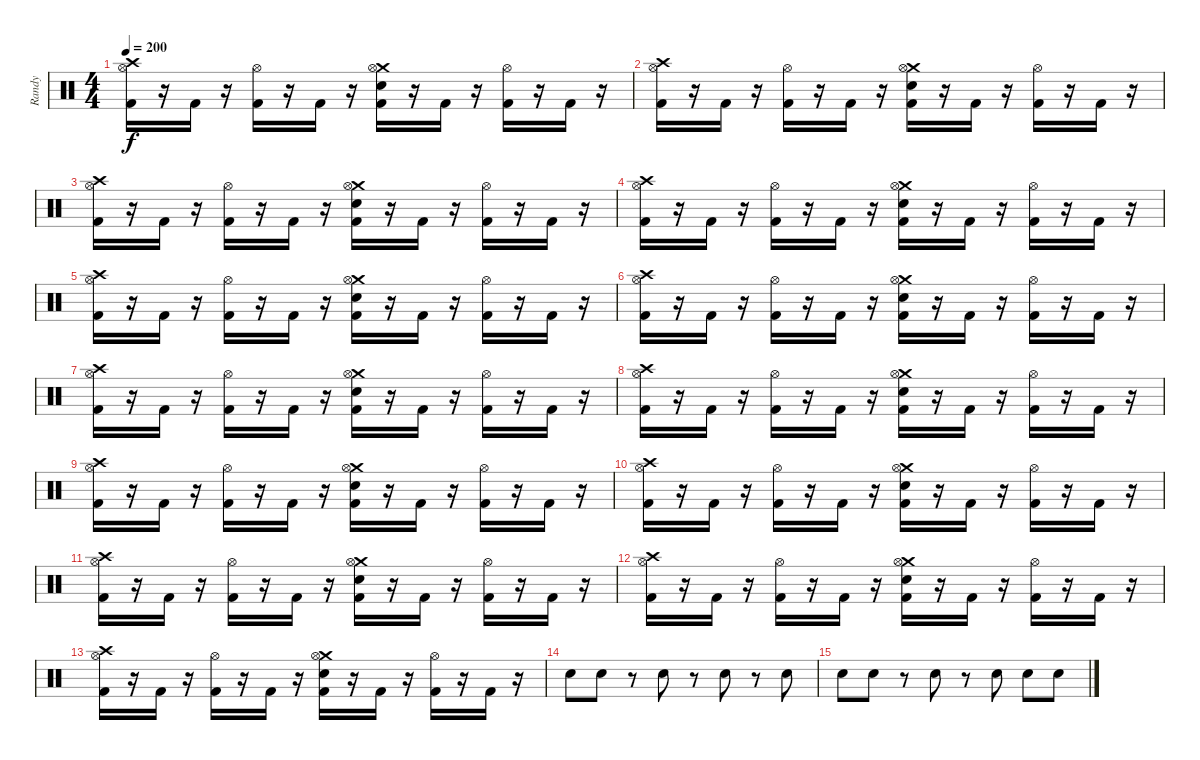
\track ("Randy" "Randy") {instrument percussion}
\staff {score}
\articulation defaults
\ts (4 4)
\tempo 200
\clef neutral
\ks c
("Kick (hit) 2" "Crash high (hit)" "Hi-Hat (open)").16{dy f} r.16 "Kick (hit) 2".16 r.16 ("Kick (hit) 2" "Hi-Hat (open)").16 r.16 "Kick (hit) 2".16 r.16 ("Kick (hit) 2" "Electric Snare (hit)" "Crash medium (hit)" "Hi-Hat (open)").16 r.16 "Kick (hit) 2".16 r.16 ("Kick (hit) 2" "Hi-Hat (open)").16 r.16 "Kick (hit) 2".16 r.16 |
("Kick (hit) 2" "Crash high (hit)" "Hi-Hat (open)").16 r.16 "Kick (hit) 2".16 r.16 ("Kick (hit) 2" "Hi-Hat (open)").16 r.16 "Kick (hit) 2".16 r.16 ("Kick (hit) 2" "Electric Snare (hit)" "Crash medium (hit)" "Hi-Hat (open)").16 r.16 "Kick (hit) 2".16 r.16 ("Kick (hit) 2" "Hi-Hat (open)").16 r.16 "Kick (hit) 2".16 r.16 |
("Kick (hit) 2" "Crash high (hit)" "Hi-Hat (open)").16 r.16 "Kick (hit) 2".16 r.16 ("Kick (hit) 2" "Hi-Hat (open)").16 r.16 "Kick (hit) 2".16 r.16 ("Kick (hit) 2" "Electric Snare (hit)" "Crash medium (hit)" "Hi-Hat (open)").16 r.16 "Kick (hit) 2".16 r.16 ("Kick (hit) 2" "Hi-Hat (open)").16 r.16 "Kick (hit) 2".16 r.16 |
("Kick (hit) 2" "Crash high (hit)" "Hi-Hat (open)").16 r.16 "Kick (hit) 2".16 r.16 ("Kick (hit) 2" "Hi-Hat (open)").16 r.16 "Kick (hit) 2".16 r.16 ("Kick (hit) 2" "Electric Snare (hit)" "Crash medium (hit)" "Hi-Hat (open)").16 r.16 "Kick (hit) 2".16 r.16 ("Kick (hit) 2" "Hi-Hat (open)").16 r.16 "Kick (hit) 2".16 r.16 |
("Kick (hit) 2" "Crash high (hit)" "Hi-Hat (open)").16 r.16 "Kick (hit) 2".16 r.16 ("Kick (hit) 2" "Hi-Hat (open)").16 r.16 "Kick (hit) 2".16 r.16 ("Kick (hit) 2" "Electric Snare (hit)" "Crash medium (hit)" "Hi-Hat (open)").16 r.16 "Kick (hit) 2".16 r.16 ("Kick (hit) 2" "Hi-Hat (open)").16 r.16 "Kick (hit) 2".16 r.16 |
("Kick (hit) 2" "Crash high (hit)" "Hi-Hat (open)").16 r.16 "Kick (hit) 2".16 r.16 ("Kick (hit) 2" "Hi-Hat (open)").16 r.16 "Kick (hit) 2".16 r.16 ("Kick (hit) 2" "Electric Snare (hit)" "Crash medium (hit)" "Hi-Hat (open)").16 r.16 "Kick (hit) 2".16 r.16 ("Kick (hit) 2" "Hi-Hat (open)").16 r.16 "Kick (hit) 2".16 r.16 |
("Kick (hit) 2" "Crash high (hit)" "Hi-Hat (open)").16 r.16 "Kick (hit) 2".16 r.16 ("Kick (hit) 2" "Hi-Hat (open)").16 r.16 "Kick (hit) 2".16 r.16 ("Kick (hit) 2" "Electric Snare (hit)" "Crash medium (hit)" "Hi-Hat (open)").16 r.16 "Kick (hit) 2".16 r.16 ("Kick (hit) 2" "Hi-Hat (open)").16 r.16 "Kick (hit) 2".16 r.16 |
("Kick (hit) 2" "Crash high (hit)" "Hi-Hat (open)").16 r.16 "Kick (hit) 2".16 r.16 ("Kick (hit) 2" "Hi-Hat (open)").16 r.16 "Kick (hit) 2".16 r.16 ("Kick (hit) 2" "Electric Snare (hit)" "Crash medium (hit)" "Hi-Hat (open)").16 r.16 "Kick (hit) 2".16 r.16 ("Kick (hit) 2" "Hi-Hat (open)").16 r.16 "Kick (hit) 2".16 r.16 |
("Kick (hit) 2" "Crash high (hit)" "Hi-Hat (open)").16 r.16 "Kick (hit) 2".16 r.16 ("Kick (hit) 2" "Hi-Hat (open)").16 r.16 "Kick (hit) 2".16 r.16 ("Kick (hit) 2" "Electric Snare (hit)" "Crash medium (hit)" "Hi-Hat (open)").16 r.16 "Kick (hit) 2".16 r.16 ("Kick (hit) 2" "Hi-Hat (open)").16 r.16 "Kick (hit) 2".16 r.16 |
("Kick (hit) 2" "Crash high (hit)" "Hi-Hat (open)").16 r.16 "Kick (hit) 2".16 r.16 ("Kick (hit) 2" "Hi-Hat (open)").16 r.16 "Kick (hit) 2".16 r.16 ("Kick (hit) 2" "Electric Snare (hit)" "Crash medium (hit)" "Hi-Hat (open)").16 r.16 "Kick (hit) 2".16 r.16 ("Kick (hit) 2" "Hi-Hat (open)").16 r.16 "Kick (hit) 2".16 r.16 |
("Kick (hit) 2" "Crash high (hit)" "Hi-Hat (open)").16 r.16 "Kick (hit) 2".16 r.16 ("Kick (hit) 2" "Hi-Hat (open)").16 r.16 "Kick (hit) 2".16 r.16 ("Kick (hit) 2" "Electric Snare (hit)" "Crash medium (hit)" "Hi-Hat (open)").16 r.16 "Kick (hit) 2".16 r.16 ("Kick (hit) 2" "Hi-Hat (open)").16 r.16 "Kick (hit) 2".16 r.16 |
("Kick (hit) 2" "Crash high (hit)" "Hi-Hat (open)").16 r.16 "Kick (hit) 2".16 r.16 ("Kick (hit) 2" "Hi-Hat (open)").16 r.16 "Kick (hit) 2".16 r.16 ("Kick (hit) 2" "Electric Snare (hit)" "Crash medium (hit)" "Hi-Hat (open)").16 r.16 "Kick (hit) 2".16 r.16 ("Kick (hit) 2" "Hi-Hat (open)").16 r.16 "Kick (hit) 2".16 r.16 |
("Kick (hit) 2" "Crash high (hit)" "Hi-Hat (open)").16 r.16 "Kick (hit) 2".16 r.16 ("Kick (hit) 2" "Hi-Hat (open)").16 r.16 "Kick (hit) 2".16 r.16 ("Kick (hit) 2" "Electric Snare (hit)" "Crash medium (hit)" "Hi-Hat (open)").16 r.16 "Kick (hit) 2".16 r.16 ("Kick (hit) 2" "Hi-Hat (open)").16 r.16 "Kick (hit) 2".16 r.16 |
"Electric Snare (hit)".8 "Electric Snare (hit)".8 r.8 "Electric Snare (hit)".8 r.8 "Electric Snare (hit)".8 r.8 "Electric Snare (hit)".8 |
"Electric Snare (hit)".8 "Electric Snare (hit)".8 r.8 "Electric Snare (hit)".8 r.8 "Electric Snare (hit)".8 "Electric Snare (hit)".8 "Electric Snare (hit)".8
